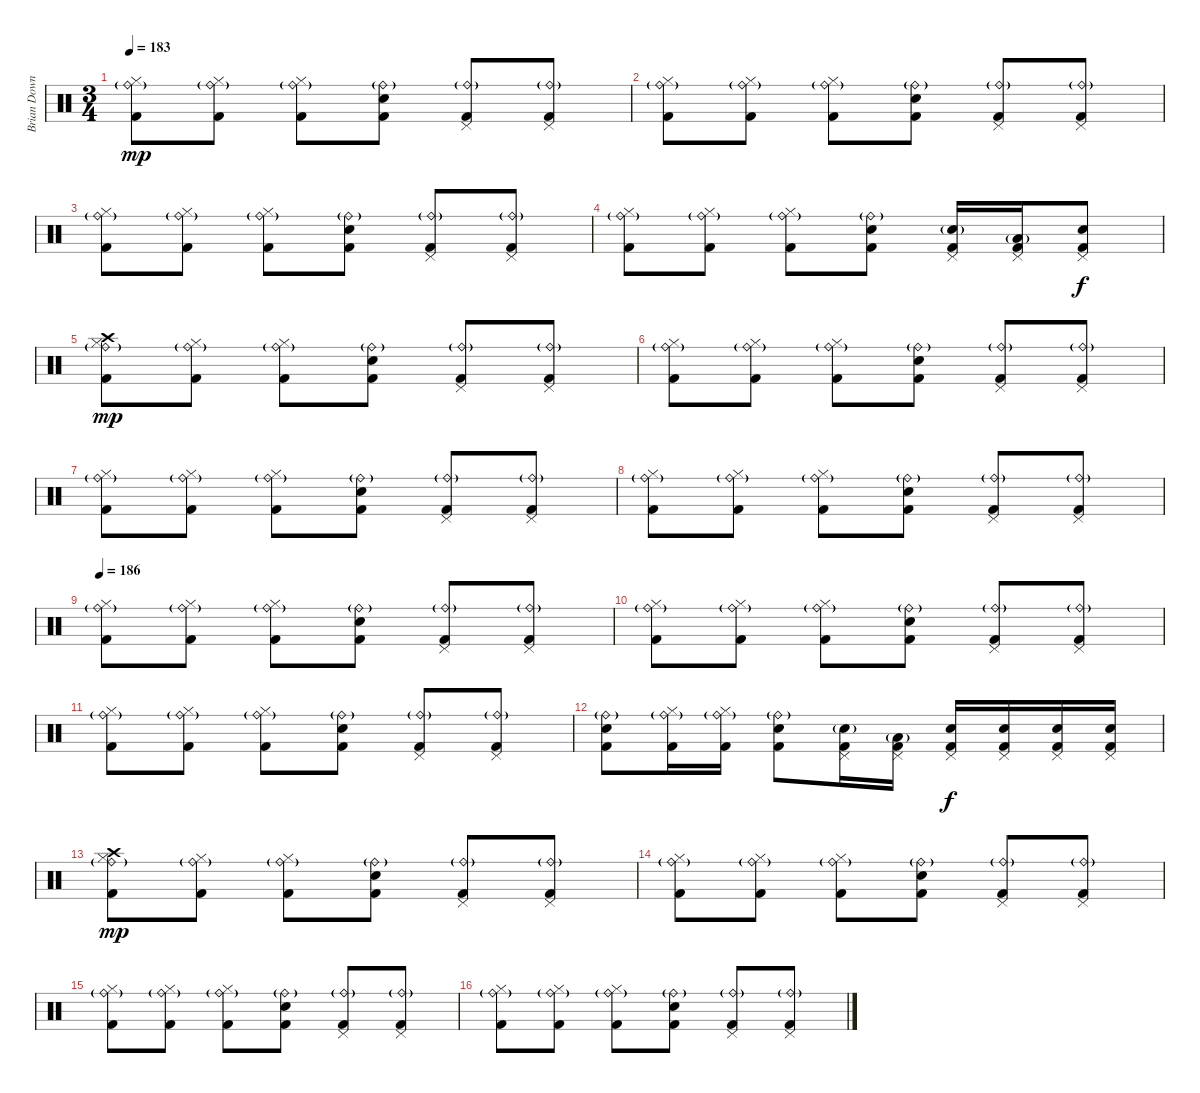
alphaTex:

\track ("Brian Downey" "Brian Down") {instrument percussion}
\staff {score}
\articulation defaults
\ts (3 4)
\tempo 183
\clef neutral
\ks c
("Ride (bell)"{g} "Hi-Hat (closed)" "Kick (hit) 2").8{dy mp} ("Ride (bell)"{g} "Hi-Hat (closed)" "Kick (hit) 2").8 ("Ride (bell)"{g} "Hi-Hat (closed)" "Kick (hit) 2").8 ("Ride (bell)"{g} "Snare (hit) 2" "Kick (hit) 2").8 ("Ride (bell)"{g} "Pedal Hi-Hat (hit)" "Kick (hit) 2").8 ("Ride (bell)"{g} "Pedal Hi-Hat (hit)" "Kick (hit) 2").8 |
("Ride (bell)"{g} "Hi-Hat (closed)" "Kick (hit) 2").8 ("Ride (bell)"{g} "Hi-Hat (closed)" "Kick (hit) 2").8 ("Ride (bell)"{g} "Hi-Hat (closed)" "Kick (hit) 2").8 ("Ride (bell)"{g} "Snare (hit) 2" "Kick (hit) 2").8 ("Ride (bell)"{g} "Pedal Hi-Hat (hit)" "Kick (hit) 2").8 ("Ride (bell)"{g} "Pedal Hi-Hat (hit)" "Kick (hit) 2").8 |
("Ride (bell)"{g} "Hi-Hat (closed)" "Kick (hit) 2").8 ("Ride (bell)"{g} "Hi-Hat (closed)" "Kick (hit) 2").8 ("Ride (bell)"{g} "Hi-Hat (closed)" "Kick (hit) 2").8 ("Ride (bell)"{g} "Snare (hit) 2" "Kick (hit) 2").8 ("Ride (bell)"{g} "Pedal Hi-Hat (hit)" "Kick (hit) 2").8 ("Ride (bell)"{g} "Pedal Hi-Hat (hit)" "Kick (hit) 2").8 |
("Ride (bell)"{g} "Hi-Hat (closed)" "Kick (hit) 2").8 ("Ride (bell)"{g} "Hi-Hat (closed)" "Kick (hit) 2").8 ("Ride (bell)"{g} "Hi-Hat (closed)" "Kick (hit) 2").8 ("Ride (bell)"{g} "Snare (hit) 2" "Kick (hit) 2").8 ("Electric Snare (hit)"{g} "Pedal Hi-Hat (hit)" "Kick (hit) 2").16 ("Low Tom (hit)"{g} "Pedal Hi-Hat (hit)" "Kick (hit) 2").16 ("Snare (hit) 2" "Pedal Hi-Hat (hit)" "Kick (hit) 2").8{dy f} |
("Crash high (hit)" "Ride (bell)"{g} "Hi-Hat (closed)" "Kick (hit) 2").8{dy mp} ("Ride (bell)"{g} "Hi-Hat (closed)" "Kick (hit) 2").8 ("Ride (bell)"{g} "Hi-Hat (closed)" "Kick (hit) 2").8 ("Ride (bell)"{g} "Snare (hit) 2" "Kick (hit) 2").8 ("Ride (bell)"{g} "Pedal Hi-Hat (hit)" "Kick (hit) 2").8 ("Ride (bell)"{g} "Pedal Hi-Hat (hit)" "Kick (hit) 2").8 |
("Ride (bell)"{g} "Hi-Hat (closed)" "Kick (hit) 2").8 ("Ride (bell)"{g} "Hi-Hat (closed)" "Kick (hit) 2").8 ("Ride (bell)"{g} "Hi-Hat (closed)" "Kick (hit) 2").8 ("Ride (bell)"{g} "Snare (hit) 2" "Kick (hit) 2").8 ("Ride (bell)"{g} "Pedal Hi-Hat (hit)" "Kick (hit) 2").8 ("Ride (bell)"{g} "Pedal Hi-Hat (hit)" "Kick (hit) 2").8 |
("Ride (bell)"{g} "Hi-Hat (closed)" "Kick (hit) 2").8 ("Ride (bell)"{g} "Hi-Hat (closed)" "Kick (hit) 2").8 ("Ride (bell)"{g} "Hi-Hat (closed)" "Kick (hit) 2").8 ("Ride (bell)"{g} "Snare (hit) 2" "Kick (hit) 2").8 ("Ride (bell)"{g} "Pedal Hi-Hat (hit)" "Kick (hit) 2").8 ("Ride (bell)"{g} "Pedal Hi-Hat (hit)" "Kick (hit) 2").8 |
("Ride (bell)"{g} "Hi-Hat (closed)" "Kick (hit) 2").8 ("Ride (bell)"{g} "Hi-Hat (closed)" "Kick (hit) 2").8 ("Ride (bell)"{g} "Hi-Hat (closed)" "Kick (hit) 2").8 ("Ride (bell)"{g} "Snare (hit) 2" "Kick (hit) 2").8 ("Ride (bell)"{g} "Pedal Hi-Hat (hit)" "Kick (hit) 2").8 ("Ride (bell)"{g} "Pedal Hi-Hat (hit)" "Kick (hit) 2").8 |
\tempo 186
("Ride (bell)"{g} "Hi-Hat (closed)" "Kick (hit) 2").8 ("Ride (bell)"{g} "Hi-Hat (closed)" "Kick (hit) 2").8 ("Ride (bell)"{g} "Hi-Hat (closed)" "Kick (hit) 2").8 ("Ride (bell)"{g} "Snare (hit) 2" "Kick (hit) 2").8 ("Ride (bell)"{g} "Pedal Hi-Hat (hit)" "Kick (hit) 2").8 ("Ride (bell)"{g} "Pedal Hi-Hat (hit)" "Kick (hit) 2").8 |
("Ride (bell)"{g} "Hi-Hat (closed)" "Kick (hit) 2").8 ("Ride (bell)"{g} "Hi-Hat (closed)" "Kick (hit) 2").8 ("Ride (bell)"{g} "Hi-Hat (closed)" "Kick (hit) 2").8 ("Ride (bell)"{g} "Snare (hit) 2" "Kick (hit) 2").8 ("Ride (bell)"{g} "Pedal Hi-Hat (hit)" "Kick (hit) 2").8 ("Ride (bell)"{g} "Pedal Hi-Hat (hit)" "Kick (hit) 2").8 |
("Ride (bell)"{g} "Hi-Hat (closed)" "Kick (hit) 2").8 ("Ride (bell)"{g} "Hi-Hat (closed)" "Kick (hit) 2").8 ("Ride (bell)"{g} "Hi-Hat (closed)" "Kick (hit) 2").8 ("Ride (bell)"{g} "Snare (hit) 2" "Kick (hit) 2").8 ("Ride (bell)"{g} "Pedal Hi-Hat (hit)" "Kick (hit) 2").8 ("Ride (bell)"{g} "Pedal Hi-Hat (hit)" "Kick (hit) 2").8 |
("Ride (bell)"{g} "Electric Snare (hit)" "Kick (hit) 2").8 ("Ride (bell)"{g} "Hi-Hat (closed)" "Kick (hit) 2").16 ("Ride (bell)"{g} "Hi-Hat (closed)" "Kick (hit) 2").16 ("Ride (bell)"{g} "Snare (hit) 2" "Kick (hit) 2").8 ("Electric Snare (hit)"{g} "Pedal Hi-Hat (hit)" "Kick (hit) 2").16 ("Low Tom (hit)"{g} "Pedal Hi-Hat (hit)" "Kick (hit) 2").16 ("Snare (hit) 2" "Pedal Hi-Hat (hit)" "Kick (hit) 2").16{dy f} ("Snare (hit) 2" "Pedal Hi-Hat (hit)" "Kick (hit) 2").16 ("Snare (hit) 2" "Pedal Hi-Hat (hit)" "Kick (hit) 2").16 ("Snare (hit) 2" "Pedal Hi-Hat (hit)" "Kick (hit) 2").16 |
("Crash high (hit)" "Ride (bell)"{g} "Hi-Hat (closed)" "Kick (hit) 2").8{dy mp} ("Ride (bell)"{g} "Hi-Hat (closed)" "Kick (hit) 2").8 ("Ride (bell)"{g} "Hi-Hat (closed)" "Kick (hit) 2").8 ("Ride (bell)"{g} "Snare (hit) 2" "Kick (hit) 2").8 ("Ride (bell)"{g} "Pedal Hi-Hat (hit)" "Kick (hit) 2").8 ("Ride (bell)"{g} "Pedal Hi-Hat (hit)" "Kick (hit) 2").8 |
("Ride (bell)"{g} "Hi-Hat (closed)" "Kick (hit) 2").8 ("Ride (bell)"{g} "Hi-Hat (closed)" "Kick (hit) 2").8 ("Ride (bell)"{g} "Hi-Hat (closed)" "Kick (hit) 2").8 ("Ride (bell)"{g} "Snare (hit) 2" "Kick (hit) 2").8 ("Ride (bell)"{g} "Pedal Hi-Hat (hit)" "Kick (hit) 2").8 ("Ride (bell)"{g} "Pedal Hi-Hat (hit)" "Kick (hit) 2").8 |
("Ride (bell)"{g} "Hi-Hat (closed)" "Kick (hit) 2").8 ("Ride (bell)"{g} "Hi-Hat (closed)" "Kick (hit) 2").8 ("Ride (bell)"{g} "Hi-Hat (closed)" "Kick (hit) 2").8 ("Ride (bell)"{g} "Snare (hit) 2" "Kick (hit) 2").8 ("Ride (bell)"{g} "Pedal Hi-Hat (hit)" "Kick (hit) 2").8 ("Ride (bell)"{g} "Pedal Hi-Hat (hit)" "Kick (hit) 2").8 |
("Ride (bell)"{g} "Hi-Hat (closed)" "Kick (hit) 2").8 ("Ride (bell)"{g} "Hi-Hat (closed)" "Kick (hit) 2").8 ("Ride (bell)"{g} "Hi-Hat (closed)" "Kick (hit) 2").8 ("Ride (bell)"{g} "Snare (hit) 2" "Kick (hit) 2").8 ("Ride (bell)"{g} "Pedal Hi-Hat (hit)" "Kick (hit) 2").8 ("Ride (bell)"{g} "Pedal Hi-Hat (hit)" "Kick (hit) 2").8
